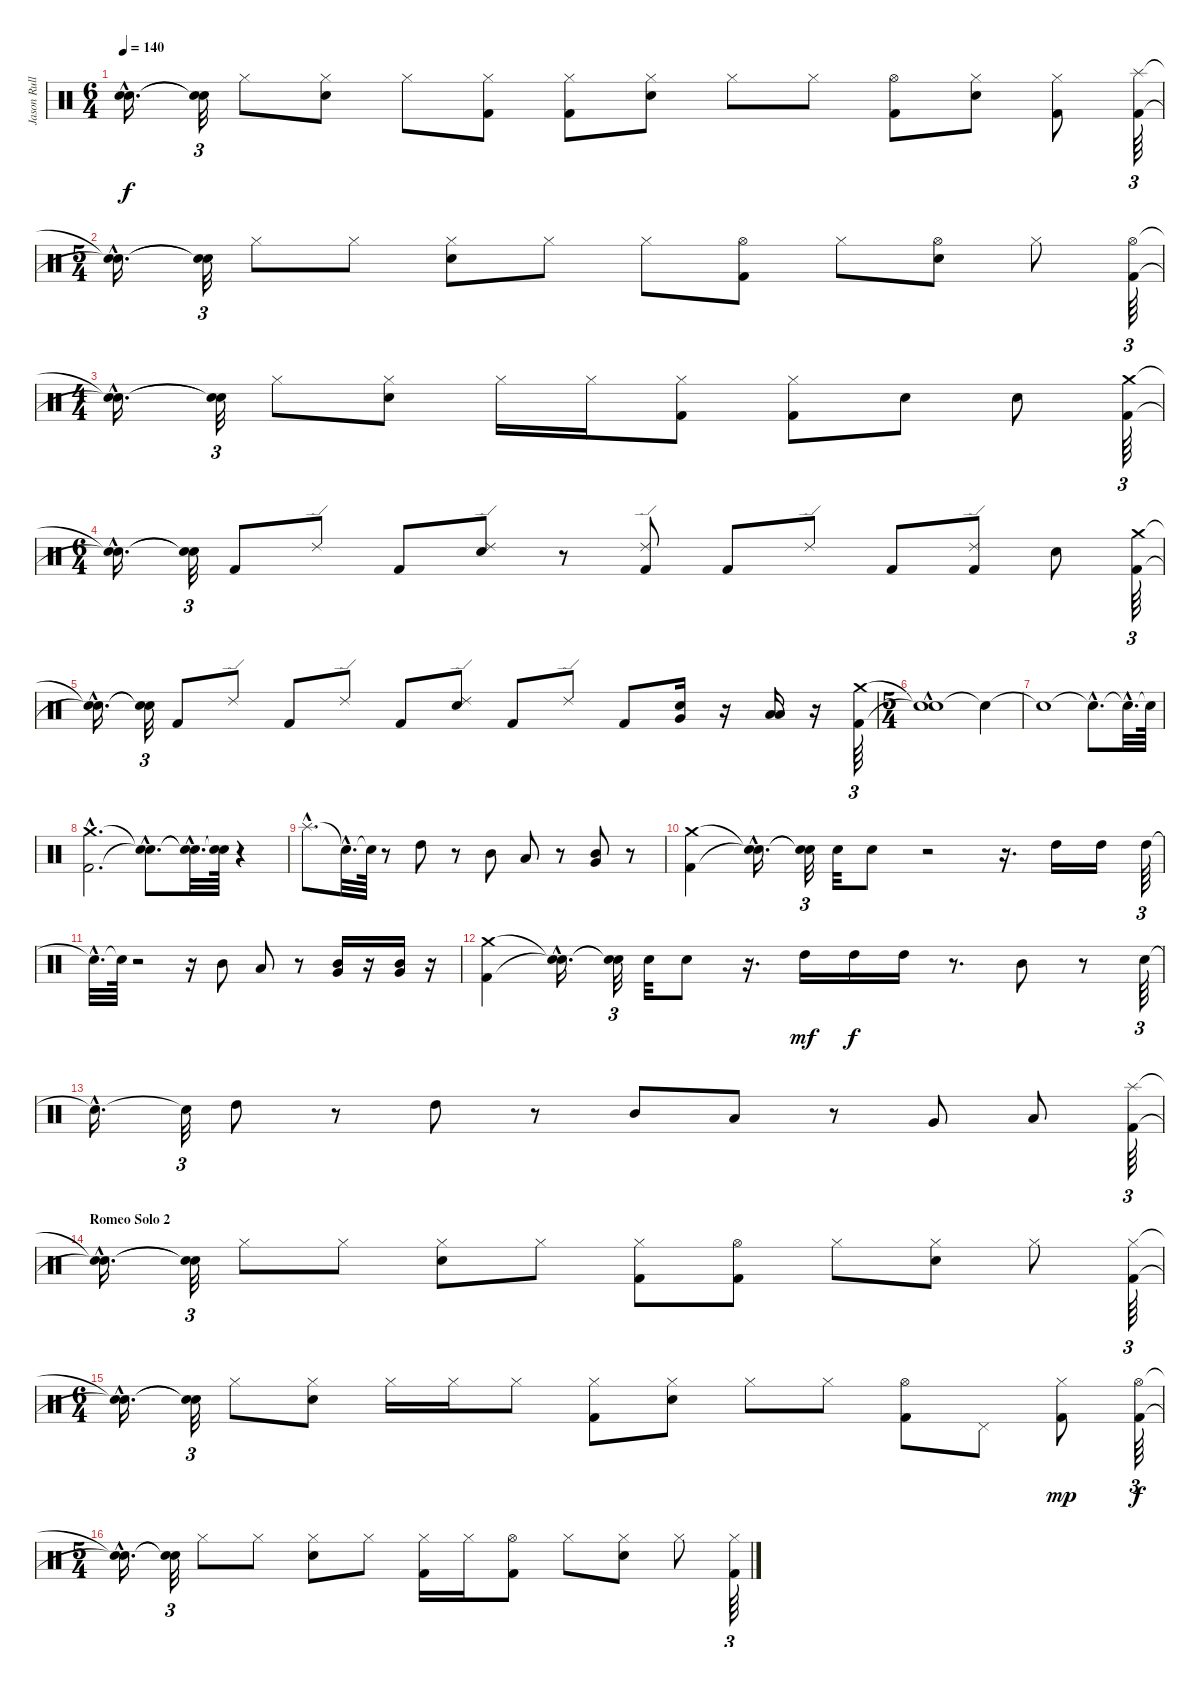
\track ("Jason Rullo" "Jason Rull") {instrument percussion}
\staff {score}
\articulation defaults
\ts (6 4)
\tempo 140
\clef neutral
\ks c
("Snare (hit)"{hac t} "Snare (hit)"{hac t}).16{d dy f} ("Snare (hit)"{t} "Snare (hit)"{t}).32{tu (3 2)} "Hi-Hat (closed)".8 ("Hi-Hat (closed)" "Electric Snare (hit)").8 "Hi-Hat (closed)".8 ("Hi-Hat (closed)" "Kick (hit) 2").8 ("Hi-Hat (closed)" "Kick (hit) 2").8 ("Hi-Hat (closed)" "Electric Snare (hit)").8 "Hi-Hat (closed)".8 "Hi-Hat (closed)".8 ("Hi-Hat (open)" "Kick (hit) 2").8 ("Hi-Hat (closed)" "Electric Snare (hit)").8 ("Hi-Hat (closed)" "Kick (hit) 2").8 ("Splash (hit)" "Kick (hit) 2").64{tu (3 2)} |
\ts (5 4)
("Snare (hit)"{hac t} "Snare (hit)"{hac t}).16{d} ("Snare (hit)"{t} "Snare (hit)"{t}).32{tu (3 2)} "Hi-Hat (closed)".8 "Hi-Hat (closed)".8 ("Hi-Hat (closed)" "Electric Snare (hit)").8 "Hi-Hat (closed)".8 "Hi-Hat (closed)".8 ("Hi-Hat (open)" "Kick (hit) 2").8 "Hi-Hat (closed)".8 ("Hi-Hat (open)" "Electric Snare (hit)").8 "Hi-Hat (closed)".8 ("Hi-Hat (open)" "Kick (hit) 2").64{tu (3 2)} |
\ts (4 4)
("Snare (hit)"{hac t} "Snare (hit)"{hac t}).16{d} ("Snare (hit)"{t} "Snare (hit)"{t}).32{tu (3 2)} "Hi-Hat (closed)".8 ("Hi-Hat (closed)" "Electric Snare (hit)").8 "Hi-Hat (closed)".16 "Hi-Hat (closed)".16 ("Hi-Hat (closed)" "Kick (hit) 2").8 ("Hi-Hat (closed)" "Kick (hit) 2").8 "Electric Snare (hit)".8 "Electric Snare (hit)".8 ("Crash medium (hit)" "Kick (hit) 2").64{tu (3 2)} |
\ts (6 4)
("Snare (hit)"{hac t} "Snare (hit)"{hac t}).16{d} ("Snare (hit)"{t} "Snare (hit)"{t}).32{tu (3 2)} "Kick (hit) 2".8 "Ride (edge) 2".8 "Kick (hit) 2".8 ("Ride (edge) 2" "Electric Snare (hit)").8 r.8 ("Ride (edge) 2" "Kick (hit) 2").8 "Kick (hit) 2".8 "Ride (edge) 2".8 "Kick (hit) 2".8 ("Ride (edge) 2" "Kick (hit) 2").8 "Electric Snare (hit)".8 ("Crash medium (hit)" "Kick (hit) 2").64{tu (3 2)} |
("Snare (hit)"{hac t} "Snare (hit)"{hac t}).16{d} ("Snare (hit)"{t} "Snare (hit)"{t}).32{tu (3 2)} "Kick (hit) 2".8 "Ride (edge) 2".8 "Kick (hit) 2".8 "Ride (edge) 2".8 "Kick (hit) 2".8 ("Electric Snare (hit)" "Ride (edge) 2").8 "Kick (hit) 2".8 "Ride (edge) 2".8 "Kick (hit) 2".8 ("Very Low Tom (hit)" "Electric Snare (hit)").16 r.16 ("Low Floor Tom (hit)" "Low Tom (hit)").16 r.16 ("Crash medium (hit)" "Kick (hit) 2").64{tu (3 2)} |
\ts (5 4)
("Snare (hit)"{t} "Snare (hit)"{hac t}).1 "Snare (hit)"{t}.4 |
"Snare (hit)"{t}.1 "Snare (hit)"{hac t}.8{d} "Snare (hit)"{hac t}.32{d} "Snare (hit)"{t}.64 |
("Crash medium (hit)"{hac} "Kick (hit) 2"{hac}).2{d} ("Snare (hit)"{hac t} "Snare (hit)"{hac t}).8{d} ("Snare (hit)"{hac t} "Snare (hit)"{hac t}).32{d} ("Snare (hit)"{t} "Snare (hit)"{t}).64 r.4 |
"Splash (hit)"{hac}.8{d} "Snare (hit)"{hac t}.32{d} "Snare (hit)"{t}.64 r.8 "High Tom (hit)".8 r.8 "Mid Tom (hit)".8 "Low Tom (hit)".8 r.8 ("Mid Tom (hit)" "Very Low Tom (hit)").8 r.8 |
("Kick (hit) 2" "Crash medium (hit)").4 ("Snare (hit)"{hac t} "Snare (hit)"{hac t}).16{d} ("Snare (hit)"{t} "Snare (hit)"{t}).32{tu (3 2)} "Electric Snare (hit)".32 "Electric Snare (hit)".8 r.2 r.16{d} "High Tom (hit)".16 "High Tom (hit)".16 "High Tom (hit)".64{tu (3 2)} |
"Snare (hit)"{hac t}.32{d} "Snare (hit)"{t}.64 r.2 r.16 "Mid Tom (hit)".8 "Low Tom (hit)".8 r.8 ("Mid Tom (hit)" "Very Low Tom (hit)").16 r.16 ("Mid Tom (hit)" "Very Low Tom (hit)").16 r.16 |
("Kick (hit) 2" "Crash medium (hit)").4 ("Snare (hit)"{hac t} "Snare (hit)"{hac t}).16{d} ("Snare (hit)"{t} "Snare (hit)"{t}).32{tu (3 2)} "Electric Snare (hit)".32 "Electric Snare (hit)".8 r.16{d} "High Tom (hit)".16{dy mf} "High Tom (hit)".16{dy f} "High Tom (hit)".16 r.8{d} "Mid Tom (hit)".8 r.8 "Electric Snare (hit)".64{tu (3 2)} |
"Snare (hit)"{hac t}.16{d} "Snare (hit)"{t}.32{tu (3 2)} "High Tom (hit)".8 r.8 "High Tom (hit)".8 r.8 "Mid Tom (hit)".8 "Low Tom (hit)".8 r.8 "Very Low Tom (hit)".8 "Low Floor Tom (hit)".8 ("Splash (hit)" "Kick (hit) 2").64{tu (3 2)} |
\section ("" "Romeo Solo 2")
("Snare (hit)"{hac t} "Snare (hit)"{hac t}).16{d} ("Snare (hit)"{t} "Snare (hit)"{t}).32{tu (3 2)} "Hi-Hat (closed)".8 "Hi-Hat (closed)".8 ("Hi-Hat (closed)" "Electric Snare (hit)").8 "Hi-Hat (closed)".8 ("Hi-Hat (closed)" "Kick (hit) 2").8 ("Hi-Hat (open)" "Kick (hit) 2").8 "Hi-Hat (closed)".8 ("Hi-Hat (closed)" "Electric Snare (hit)").8 "Hi-Hat (closed)".8 ("Hi-Hat (closed)" "Kick (hit) 2").64{tu (3 2)} |
\ts (6 4)
("Snare (hit)"{hac t} "Snare (hit)"{hac t}).16{d} ("Snare (hit)"{t} "Snare (hit)"{t}).32{tu (3 2)} "Hi-Hat (closed)".8 ("Hi-Hat (closed)" "Electric Snare (hit)").8 "Hi-Hat (closed)".16 "Hi-Hat (closed)".16 "Hi-Hat (closed)".8 ("Hi-Hat (closed)" "Kick (hit) 2").8 ("Hi-Hat (closed)" "Electric Snare (hit)").8 "Hi-Hat (closed)".8 "Hi-Hat (closed)".8 ("Hi-Hat (open)" "Kick (hit) 2").8 "Pedal Hi-Hat (hit)".8 ("Kick (hit) 2" "Hi-Hat (closed)").8{dy mp} ("Hi-Hat (open)" "Kick (hit) 2").64{tu (3 2) dy f} |
\ts (5 4)
("Snare (hit)"{hac t} "Snare (hit)"{hac t}).16{d} ("Snare (hit)"{t} "Snare (hit)"{t}).32{tu (3 2)} "Hi-Hat (closed)".8 "Hi-Hat (closed)".8 ("Hi-Hat (closed)" "Electric Snare (hit)").8 "Hi-Hat (closed)".8 ("Hi-Hat (closed)" "Kick (hit) 2").16 "Hi-Hat (closed)".16 ("Hi-Hat (open)" "Kick (hit) 2").8 "Hi-Hat (closed)".8 ("Hi-Hat (closed)" "Electric Snare (hit)").8 "Hi-Hat (closed)".8 ("Hi-Hat (closed)" "Kick (hit) 2").64{tu (3 2)}
